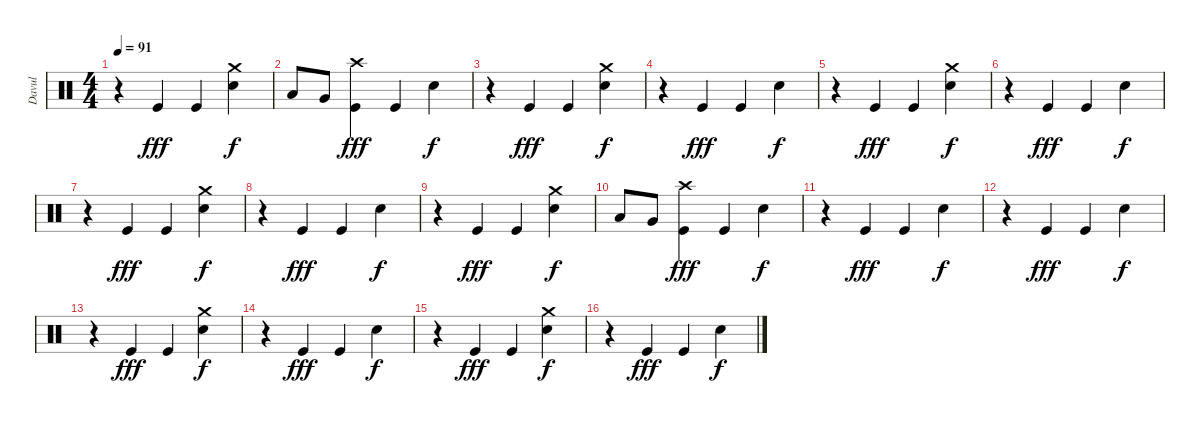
\track ("Davul" "Davul") {instrument percussion}
\staff {score}
\articulation defaults
\ts (4 4)
\tempo 91
\clef neutral
\ks c
r.4{dy f} "Kick (hit)".4{dy fff} "Kick (hit)".4 ("Crash medium (hit)" "Snare (hit) 2").4{dy f} |
"Low Tom (hit)".8 "Very Low Tom (hit)".8 ("Crash high (hit)" "Kick (hit)").4{dy fff} "Kick (hit)".4 "Snare (hit) 2".4{dy f} |
r.4 "Kick (hit)".4{dy fff} "Kick (hit)".4 ("Crash medium (hit)" "Snare (hit) 2").4{dy f} |
r.4 "Kick (hit)".4{dy fff} "Kick (hit)".4 "Snare (hit) 2".4{dy f} |
r.4 "Kick (hit)".4{dy fff} "Kick (hit)".4 ("Crash medium (hit)" "Snare (hit) 2").4{dy f} |
r.4 "Kick (hit)".4{dy fff} "Kick (hit)".4 "Snare (hit) 2".4{dy f} |
r.4 "Kick (hit)".4{dy fff} "Kick (hit)".4 ("Crash medium (hit)" "Snare (hit) 2").4{dy f} |
r.4 "Kick (hit)".4{dy fff} "Kick (hit)".4 "Snare (hit) 2".4{dy f} |
r.4 "Kick (hit)".4{dy fff} "Kick (hit)".4 ("Crash medium (hit)" "Snare (hit) 2").4{dy f} |
"Low Tom (hit)".8 "Very Low Tom (hit)".8 ("Crash high (hit)" "Kick (hit)").4{dy fff} "Kick (hit)".4 "Snare (hit) 2".4{dy f} |
r.4 "Kick (hit)".4{dy fff} "Kick (hit)".4 "Snare (hit) 2".4{dy f} |
r.4 "Kick (hit)".4{dy fff} "Kick (hit)".4 "Snare (hit) 2".4{dy f} |
r.4 "Kick (hit)".4{dy fff} "Kick (hit)".4 ("Crash medium (hit)" "Snare (hit) 2").4{dy f} |
r.4 "Kick (hit)".4{dy fff} "Kick (hit)".4 "Snare (hit) 2".4{dy f} |
r.4 "Kick (hit)".4{dy fff} "Kick (hit)".4 ("Crash medium (hit)" "Snare (hit) 2").4{dy f} |
r.4 "Kick (hit)".4{dy fff} "Kick (hit)".4 "Snare (hit) 2".4{dy f}
